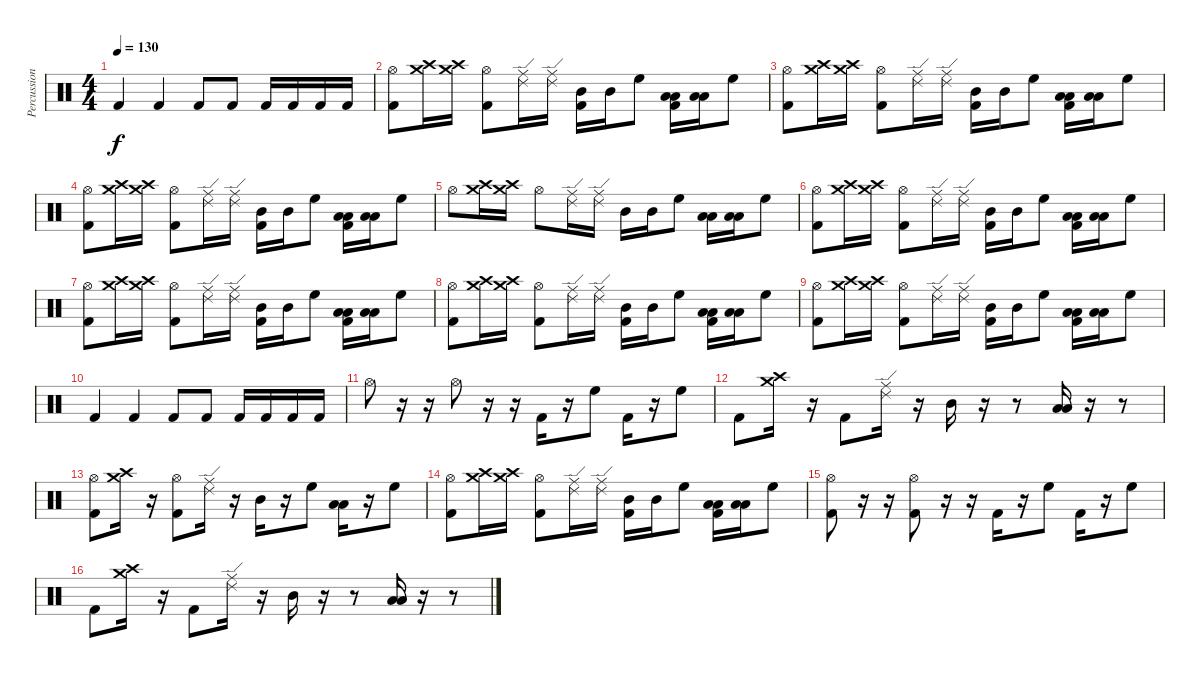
\track ("Percussions" "Percussion") {instrument percussion}
\staff {score}
\articulation defaults
\ts (4 4)
\tempo 130
\clef neutral
\ks c "Kick (hit) 2".4{dy f} "Kick (hit) 2".4 "Kick (hit) 2".8 "Kick (hit) 2".8 "Kick (hit) 2".16 "Kick (hit) 2".16 "Kick (hit) 2".16 "Kick (hit) 2".16
|
("Hi-Hat (open)" "Kick (hit) 2").8 ("Crash high (hit)" "Crash medium (hit)").16 ("Crash high (hit)" "Crash medium (hit)").16 ("Hi-Hat (open)" "Kick (hit) 2").8 ("Ride (middle)" "Ride (edge) 2").16 ("Ride (middle)" "Ride (edge) 2").16 ("Mid Tom (hit)" "Kick (hit) 2").16 "Mid Tom (hit)".16 "High Floor Tom (hit)".8 ("Low Tom (hit)" "Low Floor Tom (hit)" "Kick (hit) 2").16 ("Low Tom (hit)" "Low Floor Tom (hit)").16 "High Floor Tom (hit)".8 |
("Hi-Hat (open)" "Kick (hit) 2").8 ("Crash high (hit)" "Crash medium (hit)").16 ("Crash high (hit)" "Crash medium (hit)").16 ("Hi-Hat (open)" "Kick (hit) 2").8 ("Ride (middle)" "Ride (edge) 2").16 ("Ride (middle)" "Ride (edge) 2").16 ("Mid Tom (hit)" "Kick (hit) 2").16 "Mid Tom (hit)".16 "High Floor Tom (hit)".8 ("Low Tom (hit)" "Low Floor Tom (hit)" "Kick (hit) 2").16 ("Low Tom (hit)" "Low Floor Tom (hit)").16 "High Floor Tom (hit)".8 |
("Hi-Hat (open)" "Kick (hit) 2").8 ("Crash high (hit)" "Crash medium (hit)").16 ("Crash high (hit)" "Crash medium (hit)").16 ("Hi-Hat (open)" "Kick (hit) 2").8 ("Ride (middle)" "Ride (edge) 2").16 ("Ride (middle)" "Ride (edge) 2").16 ("Mid Tom (hit)" "Kick (hit) 2").16 "Mid Tom (hit)".16 "High Floor Tom (hit)".8 ("Low Tom (hit)" "Low Floor Tom (hit)" "Kick (hit) 2").16 ("Low Tom (hit)" "Low Floor Tom (hit)").16 "High Floor Tom (hit)".8 |
"Hi-Hat (open)".8 ("Crash high (hit)" "Crash medium (hit)").16 ("Crash high (hit)" "Crash medium (hit)").16 "Hi-Hat (open)".8 ("Ride (middle)" "Ride (edge) 2").16 ("Ride (middle)" "Ride (edge) 2").16 "Mid Tom (hit)".16 "Mid Tom (hit)".16 "High Floor Tom (hit)".8 ("Low Tom (hit)" "Low Floor Tom (hit)").16 ("Low Tom (hit)" "Low Floor Tom (hit)").16 "High Floor Tom (hit)".8 |
("Hi-Hat (open)" "Kick (hit) 2").8 ("Crash high (hit)" "Crash medium (hit)").16 ("Crash high (hit)" "Crash medium (hit)").16 ("Hi-Hat (open)" "Kick (hit) 2").8 ("Ride (middle)" "Ride (edge) 2").16 ("Ride (middle)" "Ride (edge) 2").16 ("Mid Tom (hit)" "Kick (hit) 2").16 "Mid Tom (hit)".16 "High Floor Tom (hit)".8 ("Low Tom (hit)" "Low Floor Tom (hit)" "Kick (hit) 2").16 ("Low Tom (hit)" "Low Floor Tom (hit)").16 "High Floor Tom (hit)".8 |
("Hi-Hat (open)" "Kick (hit) 2").8 ("Crash high (hit)" "Crash medium (hit)").16 ("Crash high (hit)" "Crash medium (hit)").16 ("Hi-Hat (open)" "Kick (hit) 2").8 ("Ride (middle)" "Ride (edge) 2").16 ("Ride (middle)" "Ride (edge) 2").16 ("Mid Tom (hit)" "Kick (hit) 2").16 "Mid Tom (hit)".16 "High Floor Tom (hit)".8 ("Low Tom (hit)" "Low Floor Tom (hit)" "Kick (hit) 2").16 ("Low Tom (hit)" "Low Floor Tom (hit)").16 "High Floor Tom (hit)".8 |
("Hi-Hat (open)" "Kick (hit) 2").8 ("Crash high (hit)" "Crash medium (hit)").16 ("Crash high (hit)" "Crash medium (hit)").16 ("Hi-Hat (open)" "Kick (hit) 2").8 ("Ride (middle)" "Ride (edge) 2").16 ("Ride (middle)" "Ride (edge) 2").16 ("Mid Tom (hit)" "Kick (hit) 2").16 "Mid Tom (hit)".16 "High Floor Tom (hit)".8 ("Low Tom (hit)" "Low Floor Tom (hit)" "Kick (hit) 2").16 ("Low Tom (hit)" "Low Floor Tom (hit)").16 "High Floor Tom (hit)".8 |
("Hi-Hat (open)" "Kick (hit) 2").8 ("Crash high (hit)" "Crash medium (hit)").16 ("Crash high (hit)" "Crash medium (hit)").16 ("Hi-Hat (open)" "Kick (hit) 2").8 ("Ride (middle)" "Ride (edge) 2").16 ("Ride (middle)" "Ride (edge) 2").16 ("Mid Tom (hit)" "Kick (hit) 2").16 "Mid Tom (hit)".16 "High Floor Tom (hit)".8 ("Low Tom (hit)" "Low Floor Tom (hit)" "Kick (hit) 2").16 ("Low Tom (hit)" "Low Floor Tom (hit)").16 "High Floor Tom (hit)".8 |
"Kick (hit) 2".4 "Kick (hit) 2".4 "Kick (hit) 2".8 "Kick (hit) 2".8 "Kick (hit) 2".16 "Kick (hit) 2".16 "Kick (hit) 2".16 "Kick (hit) 2".16 |
"Hi-Hat (open)".8 r.16 r.16 "Hi-Hat (open)".8 r.16 r.16 "Kick (hit) 2".16 r.16 "High Floor Tom (hit)".8 "Kick (hit) 2".16 r.16 "High Floor Tom (hit)".8 |
"Kick (hit) 2".8 ("Crash high (hit)" "Crash medium (hit)").16 r.16 "Kick (hit) 2".8 ("Ride (middle)" "Ride (edge) 2").16 r.16 "Mid Tom (hit)".16 r.16 r.8 ("Low Tom (hit)" "Low Floor Tom (hit)").16 r.16 r.8 |
("Hi-Hat (open)" "Kick (hit) 2").8 ("Crash high (hit)" "Crash medium (hit)").16 r.16 ("Hi-Hat (open)" "Kick (hit) 2").8 ("Ride (middle)" "Ride (edge) 2").16 r.16 "Mid Tom (hit)".16 r.16 "High Floor Tom (hit)".8 ("Low Tom (hit)" "Low Floor Tom (hit)").16 r.16 "High Floor Tom (hit)".8 |
("Hi-Hat (open)" "Kick (hit) 2").8 ("Crash high (hit)" "Crash medium (hit)").16 ("Crash high (hit)" "Crash medium (hit)").16 ("Hi-Hat (open)" "Kick (hit) 2").8 ("Ride (middle)" "Ride (edge) 2").16 ("Ride (middle)" "Ride (edge) 2").16 ("Mid Tom (hit)" "Kick (hit) 2").16 "Mid Tom (hit)".16 "High Floor Tom (hit)".8 ("Low Tom (hit)" "Low Floor Tom (hit)" "Kick (hit) 2").16 ("Low Tom (hit)" "Low Floor Tom (hit)").16 "High Floor Tom (hit)".8 |
("Hi-Hat (open)" "Kick (hit) 2").8 r.16 r.16 ("Hi-Hat (open)" "Kick (hit) 2").8 r.16 r.16 "Kick (hit) 2".16 r.16 "High Floor Tom (hit)".8 "Kick (hit) 2".16 r.16 "High Floor Tom (hit)".8 |
"Kick (hit) 2".8 ("Crash high (hit)" "Crash medium (hit)").16 r.16 "Kick (hit) 2".8 ("Ride (middle)" "Ride (edge) 2").16 r.16 "Mid Tom (hit)".16 r.16 r.8 ("Low Tom (hit)" "Low Floor Tom (hit)").16 r.16 r.8
